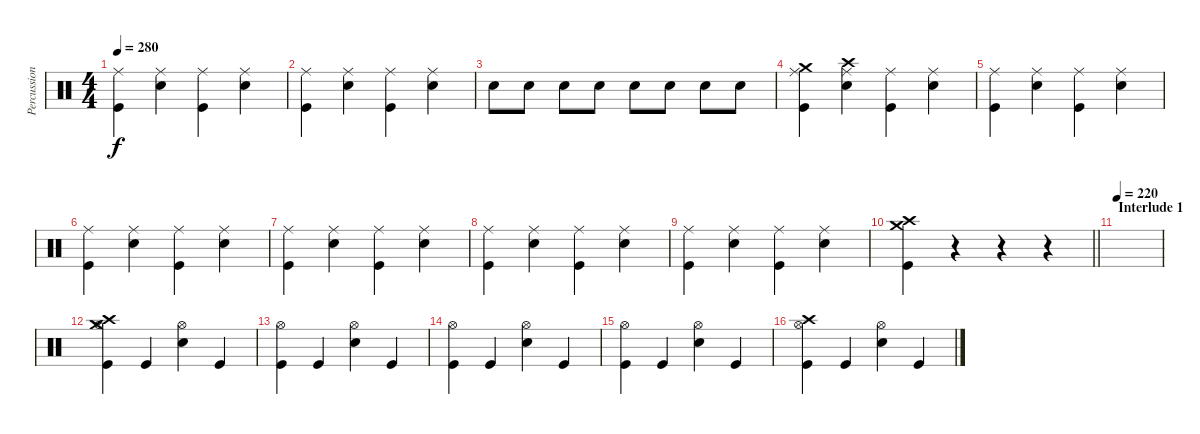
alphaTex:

\track ("Percussion" "Percussion") {instrument percussion}
\staff {score}
\articulation defaults
\ts (4 4)
\tempo 280
\clef neutral
\ks c
("Ride (middle)" "Kick (hit)").4{dy f} ("Ride (middle)" "Snare (hit) 2").4 ("Ride (middle)" "Kick (hit)").4 ("Ride (middle)" "Snare (hit) 2").4 |
("Ride (middle)" "Kick (hit)").4 ("Ride (middle)" "Snare (hit) 2").4 ("Ride (middle)" "Kick (hit)").4 ("Ride (middle)" "Snare (hit) 2").4 |
"Snare (hit) 2".8 "Snare (hit) 2".8 "Snare (hit) 2".8 "Snare (hit) 2".8 "Snare (hit) 2".8 "Snare (hit) 2".8 "Snare (hit) 2".8 "Snare (hit) 2".8 |
("Crash medium (hit)" "Ride (middle)" "Kick (hit)").4 ("Crash high (hit)" "Ride (middle)" "Snare (hit) 2").4 ("Ride (middle)" "Kick (hit)").4 ("Ride (middle)" "Snare (hit) 2").4 |
("Ride (middle)" "Kick (hit)").4 ("Ride (middle)" "Snare (hit) 2").4 ("Ride (middle)" "Kick (hit)").4 ("Ride (middle)" "Snare (hit) 2").4 |
("Ride (middle)" "Kick (hit)").4 ("Ride (middle)" "Snare (hit) 2").4 ("Ride (middle)" "Kick (hit)").4 ("Ride (middle)" "Snare (hit) 2").4 |
("Ride (middle)" "Kick (hit)").4 ("Ride (middle)" "Snare (hit) 2").4 ("Ride (middle)" "Kick (hit)").4 ("Ride (middle)" "Snare (hit) 2").4 |
("Ride (middle)" "Kick (hit)").4 ("Ride (middle)" "Snare (hit) 2").4 ("Ride (middle)" "Kick (hit)").4 ("Ride (middle)" "Snare (hit) 2").4 |
("Ride (middle)" "Kick (hit)").4 ("Ride (middle)" "Snare (hit) 2").4 ("Ride (middle)" "Kick (hit)").4 ("Ride (middle)" "Snare (hit) 2").4 |
\barLineRight lightlight
("Crash medium (hit)" "Crash high (hit)" "Kick (hit)").4 r.4 r.4 r.4 |
\section ("" "Interlude 1")
\tempo 220
|
("Crash high (hit)" "Crash medium (hit)" "Hi-Hat (open)" "Kick (hit)").4 "Kick (hit)".4 ("Hi-Hat (open)" "Snare (hit) 2").4 "Kick (hit)".4 |
("Hi-Hat (open)" "Kick (hit)").4 "Kick (hit)".4 ("Hi-Hat (open)" "Snare (hit) 2").4 "Kick (hit)".4 |
("Hi-Hat (open)" "Kick (hit)").4 "Kick (hit)".4 ("Hi-Hat (open)" "Snare (hit) 2").4 "Kick (hit)".4 |
("Hi-Hat (open)" "Kick (hit)").4 "Kick (hit)".4 ("Hi-Hat (open)" "Snare (hit) 2").4 "Kick (hit)".4 |
("Crash high (hit)" "Hi-Hat (open)" "Kick (hit)").4 "Kick (hit)".4 ("Hi-Hat (open)" "Snare (hit) 2").4 "Kick (hit)".4
